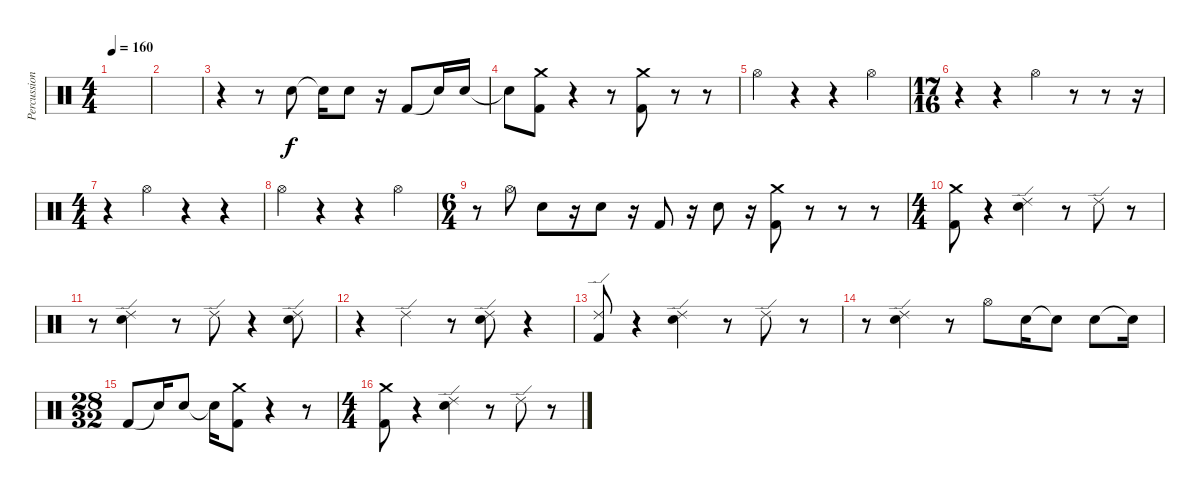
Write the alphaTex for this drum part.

\track ("Percussion" "Percussion") {instrument percussion}
\staff {score}
\articulation defaults
\ts (4 4)
\tempo 160
\clef neutral
\ks c
|
|
r.4 r.8 "Electric Snare (hit)".8 "Snare (hit)"{t}.16 "Electric Snare (hit)".8 r.16 "Kick (hit) 2".8 "Snare (hit)"{t}.16 "Electric Snare (hit)".16 |
"Electric Snare (hit)"{t}.8 ("Crash medium (hit)" "Kick (hit) 2").8 r.4 r.8 ("Crash medium (hit)" "Kick (hit) 2").8 r.8 r.8 |
"Hi-Hat (open)".4 r.4 r.4 "Hi-Hat (open)".4 |
\ts (17 16)
r.4 r.4 "Hi-Hat (open)".4 r.8 r.8 r.16 |
\ts (4 4)
r.4 "Hi-Hat (open)".4 r.4 r.4 |
"Hi-Hat (open)".4 r.4 r.4 "Hi-Hat (open)".4 |
\ts (6 4)
r.8 "Hi-Hat (open)".8 "Electric Snare (hit)".8 r.16 "Electric Snare (hit)".8 r.16 "Kick (hit) 2".8 r.16 "Electric Snare (hit)".8 r.16 ("Kick (hit) 2" "Crash medium (hit)").8 r.8 r.8 r.8 |
\ts (4 4)
("Crash medium (hit)" "Kick (hit) 2").8 r.4 ("Ride (edge) 2" "Electric Snare (hit)").4 r.8 "Ride (edge) 2".8 r.8 |
r.8 ("Ride (edge) 2" "Electric Snare (hit)").4 r.8 "Ride (edge) 2".8 r.4 ("Ride (edge) 2" "Electric Snare (hit)").8 |
r.4 "Ride (edge) 2".4 r.8 ("Ride (edge) 2" "Electric Snare (hit)").8 r.4 |
("Ride (edge) 2" "Kick (hit) 2").8 r.4 ("Ride (edge) 2" "Electric Snare (hit)").4 r.8 "Ride (edge) 2".8 r.8 |
r.8 ("Ride (edge) 2" "Electric Snare (hit)").4 r.8 "Hi-Hat (open)".8 "Electric Snare (hit)".16 "Electric Snare (hit)"{t}.8 "Electric Snare (hit)".8 "Snare (hit)"{t}.16 |
\ts (28 32)
"Kick (hit) 2".8 "Snare (hit)"{t}.16 "Electric Snare (hit)".8 "Snare (hit)"{t}.16 ("Crash medium (hit)" "Kick (hit) 2").8 r.4 r.8 |
\ts (4 4)
("Crash medium (hit)" "Kick (hit) 2").8 r.4 ("Ride (edge) 2" "Electric Snare (hit)").4 r.8 "Ride (edge) 2".8 r.8
